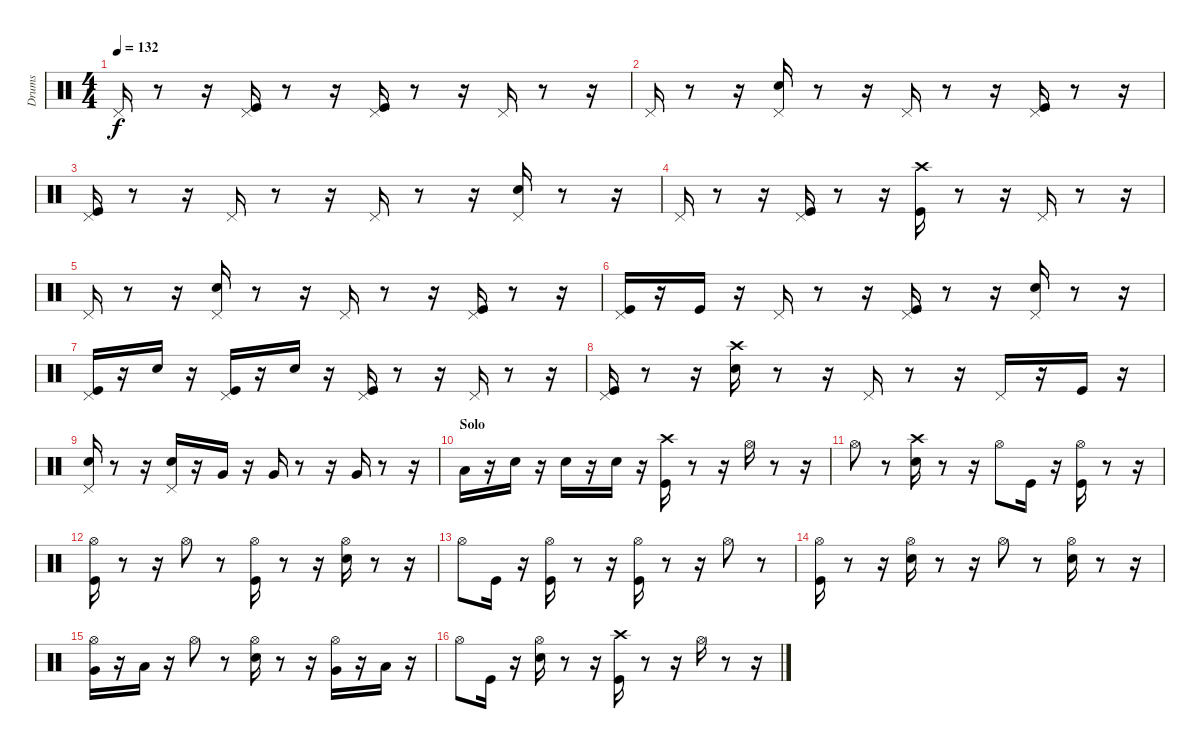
\track ("Drums" "Drums") {instrument percussion}
\staff {score}
\articulation defaults
\ts (4 4)
\tempo 132
\clef neutral
\ks c "Pedal Hi-Hat (hit)".16{dy f}
r.8 r.16 ("Pedal Hi-Hat (hit)" "Kick (hit)").16 r.8 r.16 ("Pedal Hi-Hat (hit)" "Kick (hit)").16 r.8 r.16 "Pedal Hi-Hat (hit)".16 r.8 r.16 |
"Pedal Hi-Hat (hit)".16 r.8 r.16 ("Pedal Hi-Hat (hit)" "Snare (hit) 2").16 r.8 r.16 "Pedal Hi-Hat (hit)".16 r.8 r.16 ("Pedal Hi-Hat (hit)" "Kick (hit)").16 r.8 r.16 |
("Pedal Hi-Hat (hit)" "Kick (hit)").16 r.8 r.16 "Pedal Hi-Hat (hit)".16 r.8 r.16 "Pedal Hi-Hat (hit)".16 r.8 r.16 ("Pedal Hi-Hat (hit)" "Snare (hit) 2").16 r.8 r.16 |
"Pedal Hi-Hat (hit)".16 r.8 r.16 ("Pedal Hi-Hat (hit)" "Kick (hit)").16 r.8 r.16 ("Kick (hit)" "Crash high (hit)").16 r.8 r.16 "Pedal Hi-Hat (hit)".16 r.8 r.16 |
"Pedal Hi-Hat (hit)".16 r.8 r.16 ("Pedal Hi-Hat (hit)" "Snare (hit) 2").16 r.8 r.16 "Pedal Hi-Hat (hit)".16 r.8 r.16 ("Pedal Hi-Hat (hit)" "Kick (hit)").16 r.8 r.16 |
("Pedal Hi-Hat (hit)" "Kick (hit)").16 r.16 "Kick (hit)".16 r.16 "Pedal Hi-Hat (hit)".16 r.8 r.16 ("Pedal Hi-Hat (hit)" "Kick (hit)").16 r.8 r.16 ("Pedal Hi-Hat (hit)" "Snare (hit) 2").16 r.8 r.16 |
("Pedal Hi-Hat (hit)" "Kick (hit)").16 r.16 "Snare (hit) 2".16 r.16 ("Pedal Hi-Hat (hit)" "Kick (hit)").16 r.16 "Snare (hit) 2".16 r.16 ("Kick (hit)" "Pedal Hi-Hat (hit)").16 r.8 r.16 "Pedal Hi-Hat (hit)".16 r.8 r.16 |
("Pedal Hi-Hat (hit)" "Kick (hit)").16 r.8 r.16 ("Snare (hit) 2" "Crash high (hit)").16 r.8 r.16 "Pedal Hi-Hat (hit)".16 r.8 r.16 "Pedal Hi-Hat (hit)".16 r.16 "Kick (hit)".16 r.16 |
("Pedal Hi-Hat (hit)" "Snare (hit) 2").16 r.8 r.16 ("Pedal Hi-Hat (hit)" "Snare (hit) 2").16 r.16 "Very Low Tom (hit)".16 r.16 "Very Low Tom (hit)".16 r.8 r.16 "Very Low Tom (hit)".16 r.8 r.16 |
\section ("" "Solo")
"Low Floor Tom (hit)".16 r.16 "Snare (hit) 2".16 r.16 "Snare (hit) 2".16 r.16 "Snare (hit) 2".16 r.16 ("Kick (hit)" "Crash high (hit)").16 r.8 r.16 "Hi-Hat (open)".16 r.8 r.16 |
"Hi-Hat (open)".8 r.8 ("Snare (hit) 2" "Crash high (hit)").16 r.8 r.16 "Hi-Hat (open)".8 "Kick (hit)".16 r.16 ("Hi-Hat (open)" "Kick (hit)").16 r.8 r.16 |
("Kick (hit)" "Hi-Hat (open)").16 r.8 r.16 "Hi-Hat (open)".8 r.8 ("Hi-Hat (open)" "Kick (hit)").16 r.8 r.16 ("Hi-Hat (open)" "Snare (hit) 2").16 r.8 r.16 |
"Hi-Hat (open)".8 "Kick (hit)".16 r.16 ("Hi-Hat (open)" "Kick (hit)").16 r.8 r.16 ("Hi-Hat (open)" "Kick (hit)").16 r.8 r.16 "Hi-Hat (open)".8 r.8 |
("Kick (hit)" "Hi-Hat (open)").16 r.8 r.16 ("Hi-Hat (open)" "Snare (hit) 2").16 r.8 r.16 "Hi-Hat (open)".8 r.8 ("Snare (hit) 2" "Hi-Hat (open)").16 r.8 r.16 |
("Hi-Hat (open)" "Very Low Tom (hit)").16 r.16 "Low Floor Tom (hit)".16 r.16 "Hi-Hat (open)".8 r.8 ("Hi-Hat (open)" "Snare (hit) 2").16 r.8 r.16 ("Hi-Hat (open)" "Very Low Tom (hit)").16 r.16 "Low Floor Tom (hit)".16 r.16 |
"Hi-Hat (open)".8 "Kick (hit)".16 r.16 ("Hi-Hat (open)" "Snare (hit) 2").16 r.8 r.16 ("Kick (hit)" "Crash high (hit)").16 r.8 r.16 "Hi-Hat (open)".16 r.8 r.16
